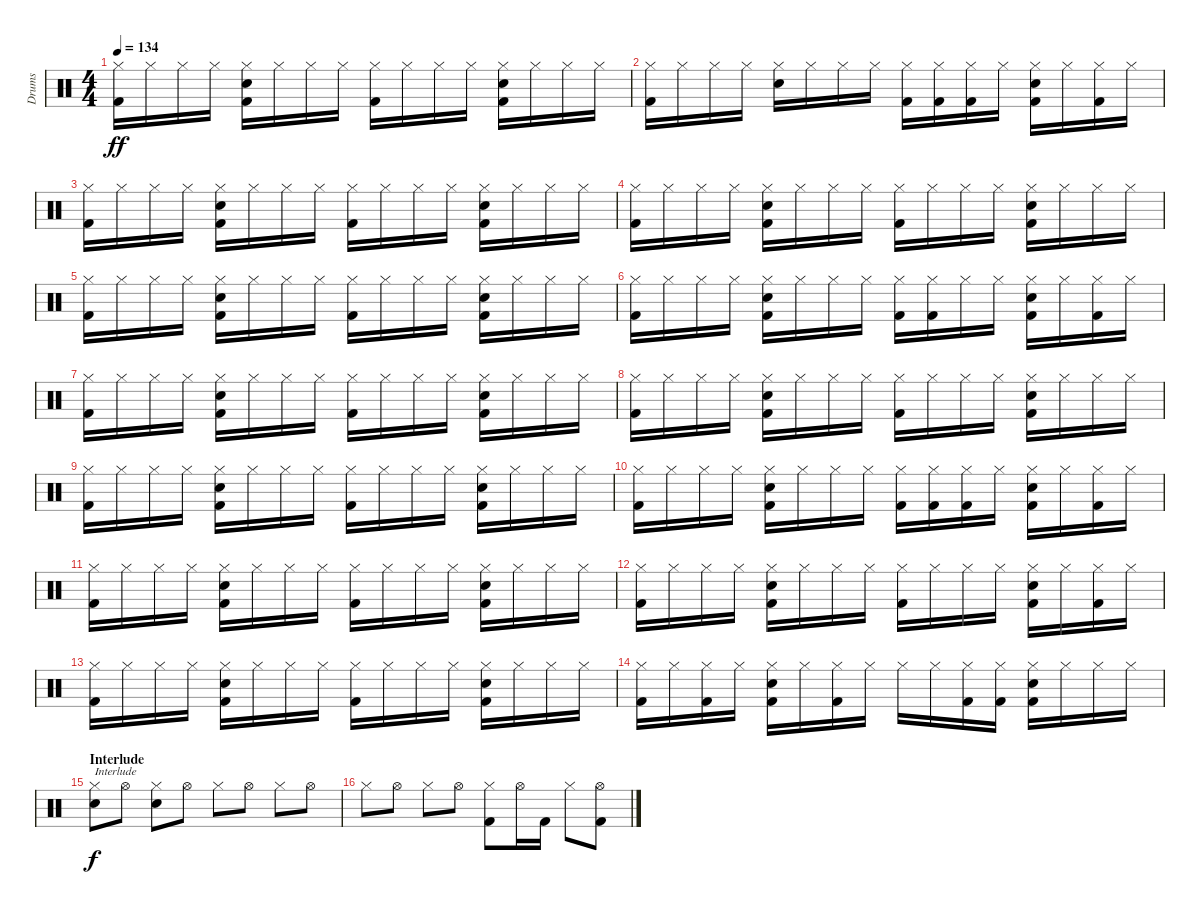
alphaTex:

\track ("Drums" "Drums") {instrument percussion}
\staff {score}
\articulation defaults
\ts (4 4)
\tempo 134
\clef neutral
\ks c
("Hi-Hat (closed)" "Kick (hit) 2").16{dy ff} "Hi-Hat (closed)".16 "Hi-Hat (closed)".16 "Hi-Hat (closed)".16 ("Hi-Hat (closed)" "Snare (hit) 2" "Kick (hit) 2").16 "Hi-Hat (closed)".16 "Hi-Hat (closed)".16 "Hi-Hat (closed)".16 ("Hi-Hat (closed)" "Kick (hit) 2").16 "Hi-Hat (closed)".16 "Hi-Hat (closed)".16 "Hi-Hat (closed)".16 ("Hi-Hat (closed)" "Snare (hit) 2" "Kick (hit) 2").16 "Hi-Hat (closed)".16 "Hi-Hat (closed)".16 "Hi-Hat (closed)".16 |
("Hi-Hat (closed)" "Kick (hit) 2").16 "Hi-Hat (closed)".16 "Hi-Hat (closed)".16 "Hi-Hat (closed)".16 ("Hi-Hat (closed)" "Snare (hit) 2").16 "Hi-Hat (closed)".16 "Hi-Hat (closed)".16 "Hi-Hat (closed)".16 ("Hi-Hat (closed)" "Kick (hit) 2").16 ("Hi-Hat (closed)" "Kick (hit) 2").16 ("Hi-Hat (closed)" "Kick (hit) 2").16 "Hi-Hat (closed)".16 ("Hi-Hat (closed)" "Snare (hit) 2" "Kick (hit) 2").16 "Hi-Hat (closed)".16 ("Hi-Hat (closed)" "Kick (hit) 2").16 "Hi-Hat (closed)".16 |
("Hi-Hat (closed)" "Kick (hit) 2").16 "Hi-Hat (closed)".16 "Hi-Hat (closed)".16 "Hi-Hat (closed)".16 ("Hi-Hat (closed)" "Snare (hit) 2" "Kick (hit) 2").16 "Hi-Hat (closed)".16 "Hi-Hat (closed)".16 "Hi-Hat (closed)".16 ("Hi-Hat (closed)" "Kick (hit) 2").16 "Hi-Hat (closed)".16 "Hi-Hat (closed)".16 "Hi-Hat (closed)".16 ("Hi-Hat (closed)" "Snare (hit) 2" "Kick (hit) 2").16 "Hi-Hat (closed)".16 "Hi-Hat (closed)".16 "Hi-Hat (closed)".16 |
("Hi-Hat (closed)" "Kick (hit) 2").16 "Hi-Hat (closed)".16 "Hi-Hat (closed)".16 "Hi-Hat (closed)".16 ("Hi-Hat (closed)" "Snare (hit) 2" "Kick (hit) 2").16 "Hi-Hat (closed)".16 "Hi-Hat (closed)".16 "Hi-Hat (closed)".16 ("Hi-Hat (closed)" "Kick (hit) 2").16 "Hi-Hat (closed)".16 "Hi-Hat (closed)".16 "Hi-Hat (closed)".16 ("Hi-Hat (closed)" "Snare (hit) 2" "Kick (hit) 2").16 "Hi-Hat (closed)".16 "Hi-Hat (closed)".16 "Hi-Hat (closed)".16 |
("Hi-Hat (closed)" "Kick (hit) 2").16 "Hi-Hat (closed)".16 "Hi-Hat (closed)".16 "Hi-Hat (closed)".16 ("Hi-Hat (closed)" "Snare (hit) 2" "Kick (hit) 2").16 "Hi-Hat (closed)".16 "Hi-Hat (closed)".16 "Hi-Hat (closed)".16 ("Hi-Hat (closed)" "Kick (hit) 2").16 "Hi-Hat (closed)".16 "Hi-Hat (closed)".16 "Hi-Hat (closed)".16 ("Hi-Hat (closed)" "Snare (hit) 2" "Kick (hit) 2").16 "Hi-Hat (closed)".16 "Hi-Hat (closed)".16 "Hi-Hat (closed)".16 |
("Hi-Hat (closed)" "Kick (hit) 2").16 "Hi-Hat (closed)".16 "Hi-Hat (closed)".16 "Hi-Hat (closed)".16 ("Hi-Hat (closed)" "Snare (hit) 2" "Kick (hit) 2").16 "Hi-Hat (closed)".16 "Hi-Hat (closed)".16 "Hi-Hat (closed)".16 ("Hi-Hat (closed)" "Kick (hit) 2").16 ("Hi-Hat (closed)" "Kick (hit) 2").16 "Hi-Hat (closed)".16 "Hi-Hat (closed)".16 ("Hi-Hat (closed)" "Snare (hit) 2" "Kick (hit) 2").16 "Hi-Hat (closed)".16 ("Hi-Hat (closed)" "Kick (hit) 2").16 "Hi-Hat (closed)".16 |
("Hi-Hat (closed)" "Kick (hit) 2").16 "Hi-Hat (closed)".16 "Hi-Hat (closed)".16 "Hi-Hat (closed)".16 ("Hi-Hat (closed)" "Snare (hit) 2" "Kick (hit) 2").16 "Hi-Hat (closed)".16 "Hi-Hat (closed)".16 "Hi-Hat (closed)".16 ("Hi-Hat (closed)" "Kick (hit) 2").16 "Hi-Hat (closed)".16 "Hi-Hat (closed)".16 "Hi-Hat (closed)".16 ("Hi-Hat (closed)" "Snare (hit) 2" "Kick (hit) 2").16 "Hi-Hat (closed)".16 "Hi-Hat (closed)".16 "Hi-Hat (closed)".16 |
("Hi-Hat (closed)" "Kick (hit) 2").16 "Hi-Hat (closed)".16 "Hi-Hat (closed)".16 "Hi-Hat (closed)".16 ("Hi-Hat (closed)" "Snare (hit) 2" "Kick (hit) 2").16 "Hi-Hat (closed)".16 "Hi-Hat (closed)".16 "Hi-Hat (closed)".16 ("Hi-Hat (closed)" "Kick (hit) 2").16 "Hi-Hat (closed)".16 "Hi-Hat (closed)".16 "Hi-Hat (closed)".16 ("Hi-Hat (closed)" "Snare (hit) 2" "Kick (hit) 2").16 "Hi-Hat (closed)".16 "Hi-Hat (closed)".16 "Hi-Hat (closed)".16 |
("Hi-Hat (closed)" "Kick (hit) 2").16 "Hi-Hat (closed)".16 "Hi-Hat (closed)".16 "Hi-Hat (closed)".16 ("Hi-Hat (closed)" "Snare (hit) 2" "Kick (hit) 2").16 "Hi-Hat (closed)".16 "Hi-Hat (closed)".16 "Hi-Hat (closed)".16 ("Hi-Hat (closed)" "Kick (hit) 2").16 "Hi-Hat (closed)".16 "Hi-Hat (closed)".16 "Hi-Hat (closed)".16 ("Hi-Hat (closed)" "Snare (hit) 2" "Kick (hit) 2").16 "Hi-Hat (closed)".16 "Hi-Hat (closed)".16 "Hi-Hat (closed)".16 |
("Hi-Hat (closed)" "Kick (hit) 2").16 "Hi-Hat (closed)".16 "Hi-Hat (closed)".16 "Hi-Hat (closed)".16 ("Hi-Hat (closed)" "Snare (hit) 2" "Kick (hit) 2").16 "Hi-Hat (closed)".16 "Hi-Hat (closed)".16 "Hi-Hat (closed)".16 ("Hi-Hat (closed)" "Kick (hit) 2").16 ("Hi-Hat (closed)" "Kick (hit) 2").16 ("Hi-Hat (closed)" "Kick (hit) 2").16 "Hi-Hat (closed)".16 ("Hi-Hat (closed)" "Snare (hit) 2" "Kick (hit) 2").16 "Hi-Hat (closed)".16 ("Hi-Hat (closed)" "Kick (hit) 2").16 "Hi-Hat (closed)".16 |
("Hi-Hat (closed)" "Kick (hit) 2").16 "Hi-Hat (closed)".16 "Hi-Hat (closed)".16 "Hi-Hat (closed)".16 ("Hi-Hat (closed)" "Snare (hit) 2" "Kick (hit) 2").16 "Hi-Hat (closed)".16 "Hi-Hat (closed)".16 "Hi-Hat (closed)".16 ("Hi-Hat (closed)" "Kick (hit) 2").16 "Hi-Hat (closed)".16 "Hi-Hat (closed)".16 "Hi-Hat (closed)".16 ("Hi-Hat (closed)" "Snare (hit) 2" "Kick (hit) 2").16 "Hi-Hat (closed)".16 "Hi-Hat (closed)".16 "Hi-Hat (closed)".16 |
("Hi-Hat (closed)" "Kick (hit) 2").16 "Hi-Hat (closed)".16 "Hi-Hat (closed)".16 "Hi-Hat (closed)".16 ("Hi-Hat (closed)" "Snare (hit) 2" "Kick (hit) 2").16 "Hi-Hat (closed)".16 "Hi-Hat (closed)".16 "Hi-Hat (closed)".16 ("Hi-Hat (closed)" "Kick (hit) 2").16 "Hi-Hat (closed)".16 "Hi-Hat (closed)".16 "Hi-Hat (closed)".16 ("Hi-Hat (closed)" "Snare (hit) 2" "Kick (hit) 2").16 "Hi-Hat (closed)".16 ("Hi-Hat (closed)" "Kick (hit) 2").16 "Hi-Hat (closed)".16 |
("Hi-Hat (closed)" "Kick (hit) 2").16 "Hi-Hat (closed)".16 "Hi-Hat (closed)".16 "Hi-Hat (closed)".16 ("Hi-Hat (closed)" "Snare (hit) 2" "Kick (hit) 2").16 "Hi-Hat (closed)".16 "Hi-Hat (closed)".16 "Hi-Hat (closed)".16 ("Hi-Hat (closed)" "Kick (hit) 2").16 "Hi-Hat (closed)".16 "Hi-Hat (closed)".16 "Hi-Hat (closed)".16 ("Hi-Hat (closed)" "Snare (hit) 2" "Kick (hit) 2").16 "Hi-Hat (closed)".16 "Hi-Hat (closed)".16 "Hi-Hat (closed)".16 |
("Hi-Hat (closed)" "Kick (hit) 2").16 "Hi-Hat (closed)".16 ("Hi-Hat (closed)" "Kick (hit) 2").16 "Hi-Hat (closed)".16 ("Hi-Hat (closed)" "Snare (hit) 2" "Kick (hit) 2").16 "Hi-Hat (closed)".16 ("Hi-Hat (closed)" "Kick (hit) 2").16 "Hi-Hat (closed)".16 "Hi-Hat (closed)".16 "Hi-Hat (closed)".16 ("Hi-Hat (closed)" "Kick (hit) 2").16 ("Hi-Hat (closed)" "Kick (hit) 2").16 ("Hi-Hat (closed)" "Snare (hit) 2" "Kick (hit) 2").16 "Hi-Hat (closed)".16 "Hi-Hat (closed)".16 "Hi-Hat (closed)".16 |
\section ("" "Interlude")
("Hi-Hat (closed)" "Snare (hit) 2").8{txt "Interlude" dy f} "Hi-Hat (open)".8 ("Hi-Hat (closed)" "Snare (hit) 2").8 "Hi-Hat (open)".8 "Hi-Hat (closed)".8 "Hi-Hat (open)".8 "Hi-Hat (closed)".8 "Hi-Hat (open)".8 |
"Hi-Hat (closed)".8 "Hi-Hat (open)".8 "Hi-Hat (closed)".8 "Hi-Hat (open)".8 ("Hi-Hat (closed)" "Kick (hit) 2").8 "Hi-Hat (open)".16 "Kick (hit) 2".16 "Hi-Hat (closed)".8 ("Hi-Hat (open)" "Kick (hit) 2").8
